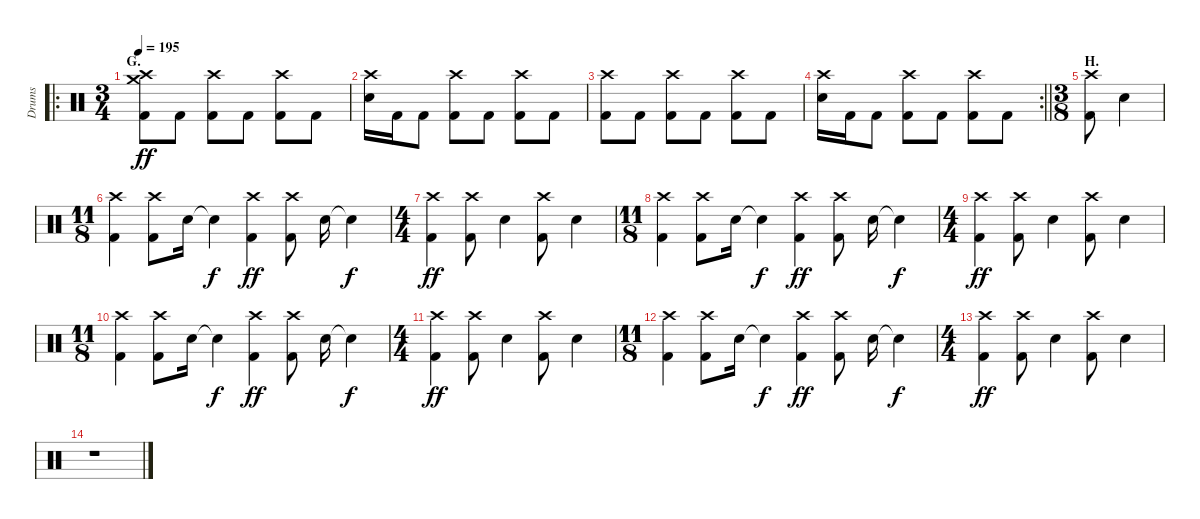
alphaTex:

\track ("Drums" "Drums") {instrument percussion}
\staff {score}
\articulation defaults
\ro
\ts (3 4)
\section ("" "G.")
\tempo 195
\clef neutral
\ks c
("Crash medium (hit)" "Crash high (hit)" "Kick (hit) 2").8{dy ff volume 14} "Kick (hit) 2".8 ("Crash high (hit)" "Kick (hit) 2").8 "Kick (hit) 2".8 ("Crash high (hit)" "Kick (hit) 2").8 "Kick (hit) 2".8 |
("Crash high (hit)" "Electric Snare (hit)").16 "Kick (hit) 2".16 "Kick (hit) 2".8 ("Crash high (hit)" "Kick (hit) 2").8 "Kick (hit) 2".8 ("Crash high (hit)" "Kick (hit) 2").8 "Kick (hit) 2".8 |
("Crash high (hit)" "Kick (hit) 2").8 "Kick (hit) 2".8 ("Crash high (hit)" "Kick (hit) 2").8 "Kick (hit) 2".8 ("Crash high (hit)" "Kick (hit) 2").8 "Kick (hit) 2".8 |
\rc 2
\barLineRight lightlight
("Crash high (hit)" "Electric Snare (hit)").16 "Kick (hit) 2".16 "Kick (hit) 2".8 ("Crash high (hit)" "Kick (hit) 2").8 "Kick (hit) 2".8 ("Crash high (hit)" "Kick (hit) 2").8 "Kick (hit) 2".8 |
\ts (3 8)
\section ("" "H.")
("Crash high (hit)" "Kick (hit) 2").8 "Electric Snare (hit)".4 |
\ts (11 8)
("Crash high (hit)" "Kick (hit) 2").4 ("Crash high (hit)" "Kick (hit) 2").8 "Electric Snare (hit)".16 "Electric Snare (hit)"{t}.4{dy f} ("Crash high (hit)" "Kick (hit) 2").4{dy ff} ("Crash high (hit)" "Kick (hit) 2").8 "Electric Snare (hit)".16 "Electric Snare (hit)"{t}.4{dy f} |
\ts (4 4)
("Crash high (hit)" "Kick (hit) 2").4{dy ff} ("Crash high (hit)" "Kick (hit) 2").8 "Electric Snare (hit)".4 ("Crash high (hit)" "Kick (hit) 2").8 "Electric Snare (hit)".4 |
\ts (11 8)
("Crash high (hit)" "Kick (hit) 2").4 ("Crash high (hit)" "Kick (hit) 2").8 "Electric Snare (hit)".16 "Electric Snare (hit)"{t}.4{dy f} ("Crash high (hit)" "Kick (hit) 2").4{dy ff} ("Crash high (hit)" "Kick (hit) 2").8 "Electric Snare (hit)".16 "Electric Snare (hit)"{t}.4{dy f} |
\ts (4 4)
("Crash high (hit)" "Kick (hit) 2").4{dy ff} ("Crash high (hit)" "Kick (hit) 2").8 "Electric Snare (hit)".4 ("Crash high (hit)" "Kick (hit) 2").8 "Electric Snare (hit)".4 |
\ts (11 8)
("Crash high (hit)" "Kick (hit) 2").4 ("Crash high (hit)" "Kick (hit) 2").8 "Electric Snare (hit)".16 "Electric Snare (hit)"{t}.4{dy f} ("Crash high (hit)" "Kick (hit) 2").4{dy ff} ("Crash high (hit)" "Kick (hit) 2").8 "Electric Snare (hit)".16 "Electric Snare (hit)"{t}.4{dy f} |
\ts (4 4)
("Crash high (hit)" "Kick (hit) 2").4{dy ff} ("Crash high (hit)" "Kick (hit) 2").8 "Electric Snare (hit)".4 ("Crash high (hit)" "Kick (hit) 2").8 "Electric Snare (hit)".4 |
\ts (11 8)
("Crash high (hit)" "Kick (hit) 2").4 ("Crash high (hit)" "Kick (hit) 2").8 "Electric Snare (hit)".16 "Electric Snare (hit)"{t}.4{dy f} ("Crash high (hit)" "Kick (hit) 2").4{dy ff} ("Crash high (hit)" "Kick (hit) 2").8 "Electric Snare (hit)".16 "Electric Snare (hit)"{t}.4{dy f} |
\ts (4 4)
("Crash high (hit)" "Kick (hit) 2").4{dy ff} ("Crash high (hit)" "Kick (hit) 2").8 "Electric Snare (hit)".4 ("Crash high (hit)" "Kick (hit) 2").8 "Electric Snare (hit)".4 |
r.1
